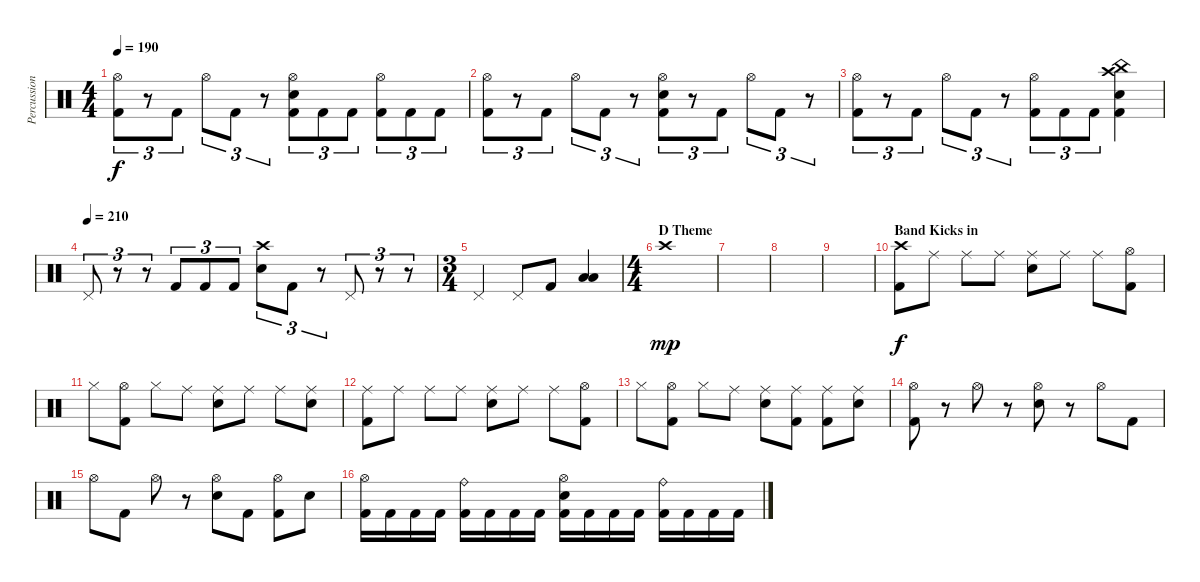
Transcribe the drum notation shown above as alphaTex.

\track ("Percussion" "Percussion") {instrument percussion}
\staff {score}
\articulation defaults
\ts (4 4)
\tempo 190
\clef neutral
\ks c
("Hi-Hat (open)" "Kick (hit) 2").8{tu (3 2) dy f} r.8{tu (3 2)} "Kick (hit) 2".8{tu (3 2)} "Hi-Hat (open)".8{tu (3 2)} "Kick (hit) 2".8{tu (3 2)} r.8{tu (3 2)} ("Hi-Hat (open)" "Electric Snare (hit)" "Kick (hit) 2").8{tu (3 2)} "Kick (hit) 2".8{tu (3 2)} "Kick (hit) 2".8{tu (3 2)} ("Hi-Hat (open)" "Kick (hit) 2").8{tu (3 2)} "Kick (hit) 2".8{tu (3 2)} "Kick (hit) 2".8{tu (3 2)} |
("Hi-Hat (open)" "Kick (hit) 2").8{tu (3 2)} r.8{tu (3 2)} "Kick (hit) 2".8{tu (3 2)} "Hi-Hat (open)".8{tu (3 2)} "Kick (hit) 2".8{tu (3 2)} r.8{tu (3 2)} ("Hi-Hat (open)" "Electric Snare (hit)" "Kick (hit) 2").8{tu (3 2)} r.8{tu (3 2)} "Kick (hit) 2".8{tu (3 2)} "Hi-Hat (open)".8{tu (3 2)} "Kick (hit) 2".8{tu (3 2)} r.8{tu (3 2)} |
("Hi-Hat (open)" "Kick (hit) 2").8{tu (3 2)} r.8{tu (3 2)} "Kick (hit) 2".8{tu (3 2)} "Hi-Hat (open)".8{tu (3 2)} "Kick (hit) 2".8{tu (3 2)} r.8{tu (3 2)} ("Hi-Hat (open)" "Kick (hit) 2").8{tu (3 2)} "Kick (hit) 2".8{tu (3 2)} "Kick (hit) 2".8{tu (3 2)} ("China (hit)" "Crash high (hit)" "Electric Snare (hit)" "Kick (hit) 2").4 |
\tempo (210)
"Pedal Hi-Hat (hit)".8{tu (3 2)} r.8{tu (3 2)} r.8{tu (3 2)} "Kick (hit) 2".8{tu (3 2)} "Kick (hit) 2".8{tu (3 2)} "Kick (hit) 2".8{tu (3 2)} ("Crash high (hit)" "Electric Snare (hit)").8{tu (3 2)} "Kick (hit) 2".8{tu (3 2)} r.8{tu (3 2)} "Pedal Hi-Hat (hit)".8{tu (3 2)} r.8{tu (3 2)} r.8{tu (3 2)} |
\ts (3 4)
"Pedal Hi-Hat (hit)".4 "Pedal Hi-Hat (hit)".8 "Kick (hit) 2".8 ("Low Tom (hit)" "Low Floor Tom (hit)").4 |
\ts (4 4)
\section ("" "D Theme")
"Crash high (hit)".1{dy mp} |
|
|
|
\section ("" "Band Kicks in")
("Crash high (hit)" "Kick (hit) 2").8{dy f} "Ride (middle)".8 "Ride (middle)".8 "Ride (middle)".8 ("Ride (middle)" "Electric Snare (hit)").8 "Ride (middle)".8 "Ride (middle)".8 ("Hi-Hat (open)" "Kick (hit) 2").8 |
"Hi-Hat (closed)".8 ("Hi-Hat (open)" "Kick (hit) 2").8 "Hi-Hat (closed)".8 "Ride (middle)".8 ("Ride (middle)" "Electric Snare (hit)").8 "Ride (middle)".8 "Ride (middle)".8 ("Ride (middle)" "Electric Snare (hit)").8 |
("Ride (middle)" "Kick (hit) 2").8 "Ride (middle)".8 "Ride (middle)".8 "Ride (middle)".8 ("Ride (middle)" "Electric Snare (hit)").8 "Ride (middle)".8 "Ride (middle)".8 ("Hi-Hat (open)" "Kick (hit) 2").8 |
"Hi-Hat (closed)".8 ("Hi-Hat (open)" "Kick (hit) 2").8 "Hi-Hat (closed)".8 "Ride (middle)".8 ("Ride (middle)" "Electric Snare (hit)").8 ("Ride (middle)" "Kick (hit) 2").8 ("Ride (middle)" "Kick (hit) 2").8 ("Ride (middle)" "Electric Snare (hit)").8 |
("Hi-Hat (open)" "Kick (hit) 2").8 r.8 "Hi-Hat (open)".8 r.8 ("Hi-Hat (open)" "Electric Snare (hit)").8 r.8 "Hi-Hat (open)".8 "Kick (hit) 2".8 |
"Hi-Hat (open)".8 "Kick (hit) 2".8 "Hi-Hat (open)".8 r.8 ("Hi-Hat (open)" "Electric Snare (hit)").8 "Kick (hit) 2".8 ("Hi-Hat (open)" "Kick (hit) 2").8 "Electric Snare (hit)".8 |
("Hi-Hat (open)" "Kick (hit) 2").16 "Kick (hit) 2".16 "Kick (hit) 2".16 "Kick (hit) 2".16 ("Ride (bell)" "Kick (hit) 2").16 "Kick (hit) 2".16 "Kick (hit) 2".16 "Kick (hit) 2".16 ("Hi-Hat (open)" "Electric Snare (hit)" "Kick (hit) 2").16 "Kick (hit) 2".16 "Kick (hit) 2".16 "Kick (hit) 2".16 ("Ride (bell)" "Kick (hit) 2").16 "Kick (hit) 2".16 "Kick (hit) 2".16 "Kick (hit) 2".16
